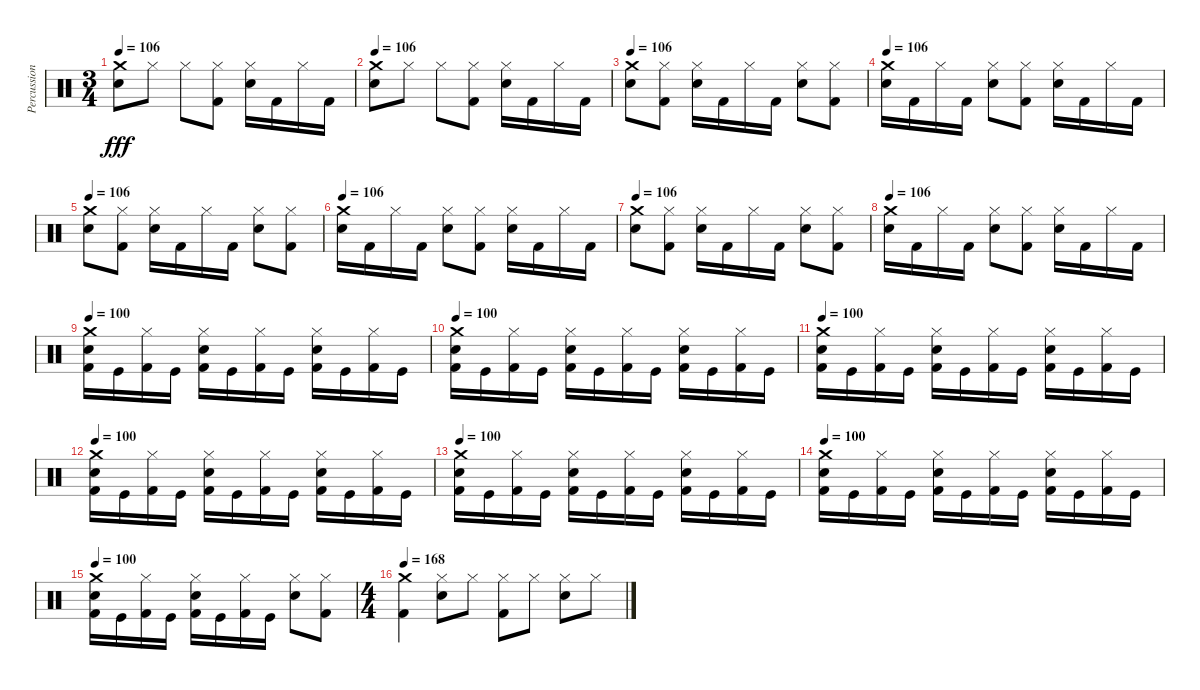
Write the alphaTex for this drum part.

\track ("Percussion" "Percussion") {instrument percussion}
\staff {score}
\articulation defaults
\ts (3 4)
\tempo 106
\clef neutral
\ks c
("Snare (hit) 2" "Crash medium (hit)").8{dy fff} "Hi-Hat (closed)".8 "Hi-Hat (closed)".8 ("Kick (hit) 2" "Hi-Hat (closed)").8 ("Snare (hit) 2" "Hi-Hat (closed)").16 "Kick (hit) 2".16 "Hi-Hat (closed)".16 "Kick (hit) 2".16 |
\tempo 106
("Snare (hit) 2" "Crash medium (hit)").8 "Hi-Hat (closed)".8 "Hi-Hat (closed)".8 ("Kick (hit) 2" "Hi-Hat (closed)").8 ("Snare (hit) 2" "Hi-Hat (closed)").16 "Kick (hit) 2".16 "Hi-Hat (closed)".16 "Kick (hit) 2".16 |
\tempo 106
("Snare (hit) 2" "Crash medium (hit)").8 ("Hi-Hat (closed)" "Kick (hit) 2").8 ("Snare (hit) 2" "Hi-Hat (closed)").16 "Kick (hit) 2".16 "Hi-Hat (closed)".16 "Kick (hit) 2".16 ("Snare (hit) 2" "Hi-Hat (closed)").8 ("Hi-Hat (closed)" "Kick (hit) 2").8 |
\tempo 106
("Snare (hit) 2" "Crash medium (hit)").16 "Kick (hit) 2".16 "Hi-Hat (closed)".16 "Kick (hit) 2".16 ("Snare (hit) 2" "Hi-Hat (closed)").8 ("Hi-Hat (closed)" "Kick (hit) 2").8 ("Snare (hit) 2" "Hi-Hat (closed)").16 "Kick (hit) 2".16 "Hi-Hat (closed)".16 "Kick (hit) 2".16 |
\tempo 106
("Snare (hit) 2" "Crash medium (hit)").8 ("Hi-Hat (closed)" "Kick (hit) 2").8 ("Snare (hit) 2" "Hi-Hat (closed)").16 "Kick (hit) 2".16 "Hi-Hat (closed)".16 "Kick (hit) 2".16 ("Snare (hit) 2" "Hi-Hat (closed)").8 ("Hi-Hat (closed)" "Kick (hit) 2").8 |
\tempo 106
("Snare (hit) 2" "Crash medium (hit)").16 "Kick (hit) 2".16 "Hi-Hat (closed)".16 "Kick (hit) 2".16 ("Snare (hit) 2" "Hi-Hat (closed)").8 ("Hi-Hat (closed)" "Kick (hit) 2").8 ("Snare (hit) 2" "Hi-Hat (closed)").16 "Kick (hit) 2".16 "Hi-Hat (closed)".16 "Kick (hit) 2".16 |
\tempo 106
("Snare (hit) 2" "Crash medium (hit)").8 ("Hi-Hat (closed)" "Kick (hit) 2").8 ("Snare (hit) 2" "Hi-Hat (closed)").16 "Kick (hit) 2".16 "Hi-Hat (closed)".16 "Kick (hit) 2".16 ("Snare (hit) 2" "Hi-Hat (closed)").8 ("Hi-Hat (closed)" "Kick (hit) 2").8 |
\tempo 106
("Snare (hit) 2" "Crash medium (hit)").16 "Kick (hit) 2".16 "Hi-Hat (closed)".16 "Kick (hit) 2".16 ("Snare (hit) 2" "Hi-Hat (closed)").8 ("Hi-Hat (closed)" "Kick (hit) 2").8 ("Snare (hit) 2" "Hi-Hat (closed)").16 "Kick (hit) 2".16 "Hi-Hat (closed)".16 "Kick (hit) 2".16 |
\tempo 100
("Kick (hit) 2" "Snare (hit) 2" "Crash medium (hit)").16 "Kick (hit)".16 ("Kick (hit) 2" "Hi-Hat (closed)").16 "Kick (hit)".16 ("Kick (hit) 2" "Snare (hit) 2" "Hi-Hat (closed)").16 "Kick (hit)".16 ("Kick (hit) 2" "Hi-Hat (closed)").16 "Kick (hit)".16 ("Kick (hit) 2" "Snare (hit) 2" "Hi-Hat (closed)").16 "Kick (hit)".16 ("Kick (hit) 2" "Hi-Hat (closed)").16 "Kick (hit)".16 |
\tempo 100
("Kick (hit) 2" "Snare (hit) 2" "Crash medium (hit)").16 "Kick (hit)".16 ("Kick (hit) 2" "Hi-Hat (closed)").16 "Kick (hit)".16 ("Kick (hit) 2" "Snare (hit) 2" "Hi-Hat (closed)").16 "Kick (hit)".16 ("Kick (hit) 2" "Hi-Hat (closed)").16 "Kick (hit)".16 ("Kick (hit) 2" "Snare (hit) 2" "Hi-Hat (closed)").16 "Kick (hit)".16 ("Kick (hit) 2" "Hi-Hat (closed)").16 "Kick (hit)".16 |
\tempo 100
("Kick (hit) 2" "Snare (hit) 2" "Crash medium (hit)").16 "Kick (hit)".16 ("Kick (hit) 2" "Hi-Hat (closed)").16 "Kick (hit)".16 ("Kick (hit) 2" "Snare (hit) 2" "Hi-Hat (closed)").16 "Kick (hit)".16 ("Kick (hit) 2" "Hi-Hat (closed)").16 "Kick (hit)".16 ("Kick (hit) 2" "Snare (hit) 2" "Hi-Hat (closed)").16 "Kick (hit)".16 ("Kick (hit) 2" "Hi-Hat (closed)").16 "Kick (hit)".16 |
\tempo 100
("Kick (hit) 2" "Snare (hit) 2" "Crash medium (hit)").16 "Kick (hit)".16 ("Kick (hit) 2" "Hi-Hat (closed)").16 "Kick (hit)".16 ("Kick (hit) 2" "Snare (hit) 2" "Hi-Hat (closed)").16 "Kick (hit)".16 ("Kick (hit) 2" "Hi-Hat (closed)").16 "Kick (hit)".16 ("Kick (hit) 2" "Snare (hit) 2" "Hi-Hat (closed)").16 "Kick (hit)".16 ("Kick (hit) 2" "Hi-Hat (closed)").16 "Kick (hit)".16 |
\tempo 100
("Kick (hit) 2" "Snare (hit) 2" "Crash medium (hit)").16 "Kick (hit)".16 ("Kick (hit) 2" "Hi-Hat (closed)").16 "Kick (hit)".16 ("Kick (hit) 2" "Snare (hit) 2" "Hi-Hat (closed)").16 "Kick (hit)".16 ("Kick (hit) 2" "Hi-Hat (closed)").16 "Kick (hit)".16 ("Kick (hit) 2" "Snare (hit) 2" "Hi-Hat (closed)").16 "Kick (hit)".16 ("Kick (hit) 2" "Hi-Hat (closed)").16 "Kick (hit)".16 |
\tempo 100
("Kick (hit) 2" "Snare (hit) 2" "Crash medium (hit)").16 "Kick (hit)".16 ("Kick (hit) 2" "Hi-Hat (closed)").16 "Kick (hit)".16 ("Kick (hit) 2" "Snare (hit) 2" "Hi-Hat (closed)").16 "Kick (hit)".16 ("Kick (hit) 2" "Hi-Hat (closed)").16 "Kick (hit)".16 ("Kick (hit) 2" "Snare (hit) 2" "Hi-Hat (closed)").16 "Kick (hit)".16 ("Kick (hit) 2" "Hi-Hat (closed)").16 "Kick (hit)".16 |
\tempo 100
("Kick (hit) 2" "Snare (hit) 2" "Crash medium (hit)").16 "Kick (hit)".16 ("Kick (hit) 2" "Hi-Hat (closed)").16 "Kick (hit)".16 ("Kick (hit) 2" "Snare (hit) 2" "Hi-Hat (closed)").16 "Kick (hit)".16 ("Kick (hit) 2" "Hi-Hat (closed)").16 "Kick (hit)".16 ("Snare (hit) 2" "Hi-Hat (closed)").8 ("Kick (hit) 2" "Hi-Hat (closed)").8 |
\ts (4 4)
\tempo 168
("Crash medium (hit)" "Kick (hit) 2").4 ("Hi-Hat (closed)" "Snare (hit) 2").8 "Hi-Hat (closed)".8 ("Kick (hit) 2" "Hi-Hat (closed)").8 "Hi-Hat (closed)".8 ("Snare (hit) 2" "Hi-Hat (closed)").8 "Hi-Hat (closed)".8
